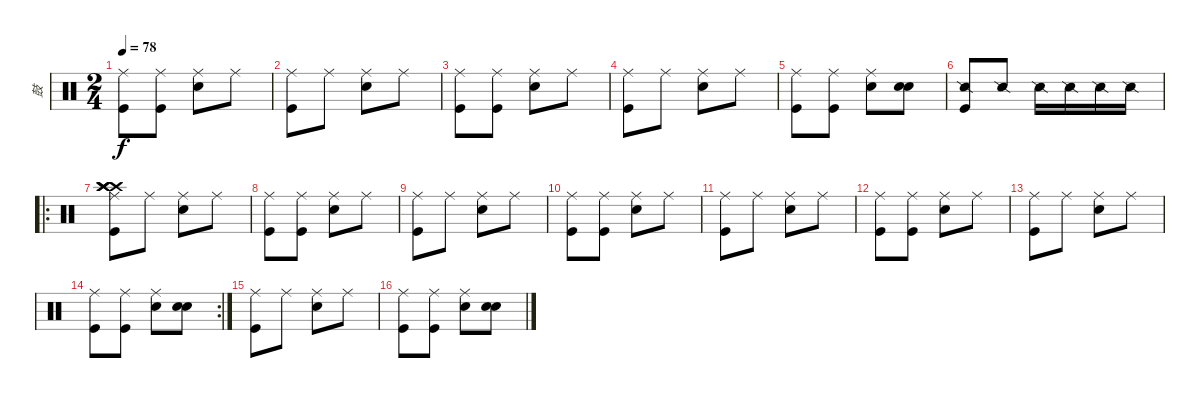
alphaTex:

\track ("鼓" "鼓") {instrument percussion}
\staff {score}
\articulation defaults
\ts (2 4)
\tempo 78
\clef neutral
\ks c
("Ride (middle)" "Kick (hit)").8{dy f} ("Ride (middle)" "Kick (hit)").8 ("Ride (middle)" "Metronome (bell)").8 "Ride (middle)".8 |
("Ride (middle)" "Kick (hit)").8 "Ride (middle)".8 ("Ride (middle)" "Metronome (bell)").8 "Ride (middle)".8 |
("Ride (middle)" "Kick (hit)").8 ("Ride (middle)" "Kick (hit)").8 ("Ride (middle)" "Metronome (bell)").8 "Ride (middle)".8 |
("Ride (middle)" "Kick (hit)").8 "Ride (middle)".8 ("Ride (middle)" "Metronome (bell)").8 "Ride (middle)".8 |
("Ride (middle)" "Kick (hit)").8 ("Ride (middle)" "Kick (hit)").8 ("Ride (middle)" "Metronome (bell)").8 ("Snare (hit)" "Metronome (bell)").8 |
("Kick (hit)" "Snare (side stick) 2").8 "Snare (side stick) 2".8 "Snare (side stick) 2".16 "Snare (side stick) 2".16 "Snare (side stick) 2".16 "Snare (side stick) 2".16 |
\ro
("Ride (middle)" "Kick (hit)" "Crash high (hit)" "Crash high (hit)" "Crash high (hit)" "Crash high (hit)").8 "Ride (middle)".8 ("Ride (middle)" "Metronome (bell)").8 "Ride (middle)".8 |
("Ride (middle)" "Kick (hit)").8 ("Ride (middle)" "Kick (hit)").8 ("Ride (middle)" "Metronome (bell)").8 "Ride (middle)".8 |
("Ride (middle)" "Kick (hit)").8 "Ride (middle)".8 ("Ride (middle)" "Metronome (bell)").8 "Ride (middle)".8 |
("Ride (middle)" "Kick (hit)").8 ("Ride (middle)" "Kick (hit)").8 ("Ride (middle)" "Metronome (bell)").8 "Ride (middle)".8 |
("Ride (middle)" "Kick (hit)").8 "Ride (middle)".8 ("Ride (middle)" "Metronome (bell)").8 "Ride (middle)".8 |
("Ride (middle)" "Kick (hit)").8 ("Ride (middle)" "Kick (hit)").8 ("Ride (middle)" "Metronome (bell)").8 "Ride (middle)".8 |
("Ride (middle)" "Kick (hit)").8 "Ride (middle)".8 ("Ride (middle)" "Metronome (bell)").8 "Ride (middle)".8 |
\rc 2
("Ride (middle)" "Kick (hit)").8 ("Ride (middle)" "Kick (hit)").8 ("Ride (middle)" "Metronome (bell)").8 ("Snare (hit)" "Metronome (bell)").8 |
("Ride (middle)" "Kick (hit)").8 "Ride (middle)".8 ("Ride (middle)" "Metronome (bell)").8 "Ride (middle)".8 |
("Ride (middle)" "Kick (hit)").8 ("Ride (middle)" "Kick (hit)").8 ("Ride (middle)" "Metronome (bell)").8 ("Snare (hit)" "Metronome (bell)").8
